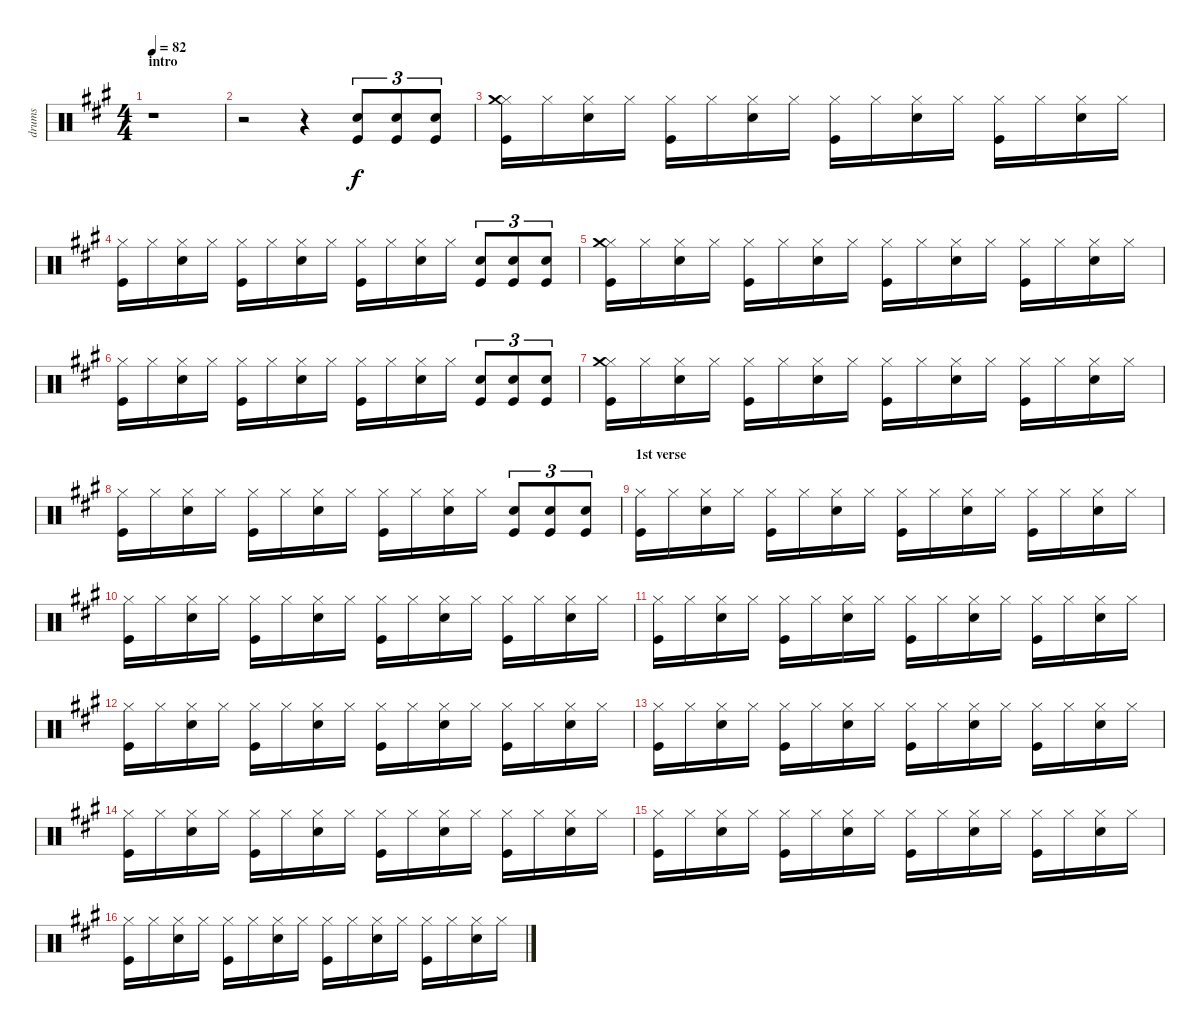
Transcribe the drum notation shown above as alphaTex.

\track ("drums" "drums") {instrument percussion}
\staff {score}
\articulation defaults
\ts (4 4)
\section ("" "intro")
\tempo 82
\clef neutral
\ks a
r.1{dy f} |
r.2 r.4 ("Snare (hit) 2" "Kick (hit)").8{tu (3 2)} ("Snare (hit) 2" "Kick (hit)").8{tu (3 2)} ("Snare (hit) 2" "Kick (hit)").8{tu (3 2)} |
("Hi-Hat (closed)" "Crash medium (hit)" "Kick (hit)").16 "Hi-Hat (closed)".16 ("Hi-Hat (closed)" "Snare (hit) 2").16 "Hi-Hat (closed)".16 ("Hi-Hat (closed)" "Kick (hit)").16 "Hi-Hat (closed)".16 ("Hi-Hat (closed)" "Snare (hit) 2").16 "Hi-Hat (closed)".16 ("Hi-Hat (closed)" "Kick (hit)").16 "Hi-Hat (closed)".16 ("Hi-Hat (closed)" "Snare (hit) 2").16 "Hi-Hat (closed)".16 ("Hi-Hat (closed)" "Kick (hit)").16 "Hi-Hat (closed)".16 ("Hi-Hat (closed)" "Snare (hit) 2").16 "Hi-Hat (closed)".16 |
("Hi-Hat (closed)" "Kick (hit)").16 "Hi-Hat (closed)".16 ("Hi-Hat (closed)" "Snare (hit) 2").16 "Hi-Hat (closed)".16 ("Hi-Hat (closed)" "Kick (hit)").16 "Hi-Hat (closed)".16 ("Hi-Hat (closed)" "Snare (hit) 2").16 "Hi-Hat (closed)".16 ("Hi-Hat (closed)" "Kick (hit)").16 "Hi-Hat (closed)".16 ("Hi-Hat (closed)" "Snare (hit) 2").16 "Hi-Hat (closed)".16 ("Snare (hit) 2" "Kick (hit)").8{tu (3 2)} ("Snare (hit) 2" "Kick (hit)").8{tu (3 2)} ("Snare (hit) 2" "Kick (hit)").8{tu (3 2)} |
("Hi-Hat (closed)" "Crash medium (hit)" "Kick (hit)").16 "Hi-Hat (closed)".16 ("Hi-Hat (closed)" "Snare (hit) 2").16 "Hi-Hat (closed)".16 ("Hi-Hat (closed)" "Kick (hit)").16 "Hi-Hat (closed)".16 ("Hi-Hat (closed)" "Snare (hit) 2").16 "Hi-Hat (closed)".16 ("Hi-Hat (closed)" "Kick (hit)").16 "Hi-Hat (closed)".16 ("Hi-Hat (closed)" "Snare (hit) 2").16 "Hi-Hat (closed)".16 ("Hi-Hat (closed)" "Kick (hit)").16 "Hi-Hat (closed)".16 ("Hi-Hat (closed)" "Snare (hit) 2").16 "Hi-Hat (closed)".16 |
("Hi-Hat (closed)" "Kick (hit)").16 "Hi-Hat (closed)".16 ("Hi-Hat (closed)" "Snare (hit) 2").16 "Hi-Hat (closed)".16 ("Hi-Hat (closed)" "Kick (hit)").16 "Hi-Hat (closed)".16 ("Hi-Hat (closed)" "Snare (hit) 2").16 "Hi-Hat (closed)".16 ("Hi-Hat (closed)" "Kick (hit)").16 "Hi-Hat (closed)".16 ("Hi-Hat (closed)" "Snare (hit) 2").16 "Hi-Hat (closed)".16 ("Snare (hit) 2" "Kick (hit)").8{tu (3 2)} ("Snare (hit) 2" "Kick (hit)").8{tu (3 2)} ("Snare (hit) 2" "Kick (hit)").8{tu (3 2)} |
("Hi-Hat (closed)" "Crash medium (hit)" "Kick (hit)").16 "Hi-Hat (closed)".16 ("Hi-Hat (closed)" "Snare (hit) 2").16 "Hi-Hat (closed)".16 ("Hi-Hat (closed)" "Kick (hit)").16 "Hi-Hat (closed)".16 ("Hi-Hat (closed)" "Snare (hit) 2").16 "Hi-Hat (closed)".16 ("Hi-Hat (closed)" "Kick (hit)").16 "Hi-Hat (closed)".16 ("Hi-Hat (closed)" "Snare (hit) 2").16 "Hi-Hat (closed)".16 ("Hi-Hat (closed)" "Kick (hit)").16 "Hi-Hat (closed)".16 ("Hi-Hat (closed)" "Snare (hit) 2").16 "Hi-Hat (closed)".16 |
("Hi-Hat (closed)" "Kick (hit)").16 "Hi-Hat (closed)".16 ("Hi-Hat (closed)" "Snare (hit) 2").16 "Hi-Hat (closed)".16 ("Hi-Hat (closed)" "Kick (hit)").16 "Hi-Hat (closed)".16 ("Hi-Hat (closed)" "Snare (hit) 2").16 "Hi-Hat (closed)".16 ("Hi-Hat (closed)" "Kick (hit)").16 "Hi-Hat (closed)".16 ("Hi-Hat (closed)" "Snare (hit) 2").16 "Hi-Hat (closed)".16 ("Snare (hit) 2" "Kick (hit)").8{tu (3 2)} ("Snare (hit) 2" "Kick (hit)").8{tu (3 2)} ("Snare (hit) 2" "Kick (hit)").8{tu (3 2)} |
\section ("" "1st verse")
("Hi-Hat (closed)" "Kick (hit)").16 "Hi-Hat (closed)".16 ("Hi-Hat (closed)" "Snare (hit) 2").16 "Hi-Hat (closed)".16 ("Hi-Hat (closed)" "Kick (hit)").16 "Hi-Hat (closed)".16 ("Hi-Hat (closed)" "Snare (hit) 2").16 "Hi-Hat (closed)".16 ("Hi-Hat (closed)" "Kick (hit)").16 "Hi-Hat (closed)".16 ("Hi-Hat (closed)" "Snare (hit) 2").16 "Hi-Hat (closed)".16 ("Hi-Hat (closed)" "Kick (hit)").16 "Hi-Hat (closed)".16 ("Hi-Hat (closed)" "Snare (hit) 2").16 "Hi-Hat (closed)".16 |
("Hi-Hat (closed)" "Kick (hit)").16 "Hi-Hat (closed)".16 ("Hi-Hat (closed)" "Snare (hit) 2").16 "Hi-Hat (closed)".16 ("Hi-Hat (closed)" "Kick (hit)").16 "Hi-Hat (closed)".16 ("Hi-Hat (closed)" "Snare (hit) 2").16 "Hi-Hat (closed)".16 ("Hi-Hat (closed)" "Kick (hit)").16 "Hi-Hat (closed)".16 ("Hi-Hat (closed)" "Snare (hit) 2").16 "Hi-Hat (closed)".16 ("Hi-Hat (closed)" "Kick (hit)").16 "Hi-Hat (closed)".16 ("Hi-Hat (closed)" "Snare (hit) 2").16 "Hi-Hat (closed)".16 |
("Hi-Hat (closed)" "Kick (hit)").16 "Hi-Hat (closed)".16 ("Hi-Hat (closed)" "Snare (hit) 2").16 "Hi-Hat (closed)".16 ("Hi-Hat (closed)" "Kick (hit)").16 "Hi-Hat (closed)".16 ("Hi-Hat (closed)" "Snare (hit) 2").16 "Hi-Hat (closed)".16 ("Hi-Hat (closed)" "Kick (hit)").16 "Hi-Hat (closed)".16 ("Hi-Hat (closed)" "Snare (hit) 2").16 "Hi-Hat (closed)".16 ("Hi-Hat (closed)" "Kick (hit)").16 "Hi-Hat (closed)".16 ("Hi-Hat (closed)" "Snare (hit) 2").16 "Hi-Hat (closed)".16 |
("Hi-Hat (closed)" "Kick (hit)").16 "Hi-Hat (closed)".16 ("Hi-Hat (closed)" "Snare (hit) 2").16 "Hi-Hat (closed)".16 ("Hi-Hat (closed)" "Kick (hit)").16 "Hi-Hat (closed)".16 ("Hi-Hat (closed)" "Snare (hit) 2").16 "Hi-Hat (closed)".16 ("Hi-Hat (closed)" "Kick (hit)").16 "Hi-Hat (closed)".16 ("Hi-Hat (closed)" "Snare (hit) 2").16 "Hi-Hat (closed)".16 ("Hi-Hat (closed)" "Kick (hit)").16 "Hi-Hat (closed)".16 ("Hi-Hat (closed)" "Snare (hit) 2").16 "Hi-Hat (closed)".16 |
("Hi-Hat (closed)" "Kick (hit)").16 "Hi-Hat (closed)".16 ("Hi-Hat (closed)" "Snare (hit) 2").16 "Hi-Hat (closed)".16 ("Hi-Hat (closed)" "Kick (hit)").16 "Hi-Hat (closed)".16 ("Hi-Hat (closed)" "Snare (hit) 2").16 "Hi-Hat (closed)".16 ("Hi-Hat (closed)" "Kick (hit)").16 "Hi-Hat (closed)".16 ("Hi-Hat (closed)" "Snare (hit) 2").16 "Hi-Hat (closed)".16 ("Hi-Hat (closed)" "Kick (hit)").16 "Hi-Hat (closed)".16 ("Hi-Hat (closed)" "Snare (hit) 2").16 "Hi-Hat (closed)".16 |
("Hi-Hat (closed)" "Kick (hit)").16 "Hi-Hat (closed)".16 ("Hi-Hat (closed)" "Snare (hit) 2").16 "Hi-Hat (closed)".16 ("Hi-Hat (closed)" "Kick (hit)").16 "Hi-Hat (closed)".16 ("Hi-Hat (closed)" "Snare (hit) 2").16 "Hi-Hat (closed)".16 ("Hi-Hat (closed)" "Kick (hit)").16 "Hi-Hat (closed)".16 ("Hi-Hat (closed)" "Snare (hit) 2").16 "Hi-Hat (closed)".16 ("Hi-Hat (closed)" "Kick (hit)").16 "Hi-Hat (closed)".16 ("Hi-Hat (closed)" "Snare (hit) 2").16 "Hi-Hat (closed)".16 |
("Hi-Hat (closed)" "Kick (hit)").16 "Hi-Hat (closed)".16 ("Hi-Hat (closed)" "Snare (hit) 2").16 "Hi-Hat (closed)".16 ("Hi-Hat (closed)" "Kick (hit)").16 "Hi-Hat (closed)".16 ("Hi-Hat (closed)" "Snare (hit) 2").16 "Hi-Hat (closed)".16 ("Hi-Hat (closed)" "Kick (hit)").16 "Hi-Hat (closed)".16 ("Hi-Hat (closed)" "Snare (hit) 2").16 "Hi-Hat (closed)".16 ("Hi-Hat (closed)" "Kick (hit)").16 "Hi-Hat (closed)".16 ("Hi-Hat (closed)" "Snare (hit) 2").16 "Hi-Hat (closed)".16 |
("Hi-Hat (closed)" "Kick (hit)").16 "Hi-Hat (closed)".16 ("Hi-Hat (closed)" "Snare (hit) 2").16 "Hi-Hat (closed)".16 ("Hi-Hat (closed)" "Kick (hit)").16 "Hi-Hat (closed)".16 ("Hi-Hat (closed)" "Snare (hit) 2").16 "Hi-Hat (closed)".16 ("Hi-Hat (closed)" "Kick (hit)").16 "Hi-Hat (closed)".16 ("Hi-Hat (closed)" "Snare (hit) 2").16 "Hi-Hat (closed)".16 ("Hi-Hat (closed)" "Kick (hit)").16 "Hi-Hat (closed)".16 ("Hi-Hat (closed)" "Snare (hit) 2").16 "Hi-Hat (closed)".16
